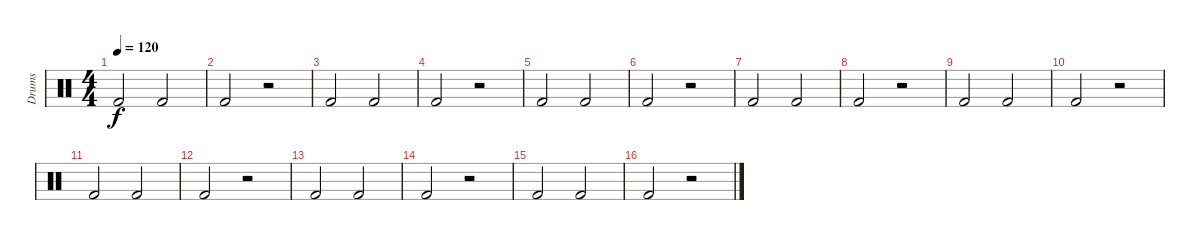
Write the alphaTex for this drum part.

\track ("Drums" "Drums") {instrument percussion}
\staff {score}
\articulation defaults
\ts (4 4)
\tempo 120
\clef neutral
\ks c "Kick (hit) 2".2{dy f} "Kick (hit) 2".2
|
"Kick (hit) 2".2 r.2 |
"Kick (hit) 2".2 "Kick (hit) 2".2 |
"Kick (hit) 2".2 r.2 |
"Kick (hit) 2".2 "Kick (hit) 2".2 |
"Kick (hit) 2".2 r.2 |
"Kick (hit) 2".2 "Kick (hit) 2".2 |
"Kick (hit) 2".2 r.2 |
"Kick (hit) 2".2 "Kick (hit) 2".2 |
"Kick (hit) 2".2 r.2 |
"Kick (hit) 2".2 "Kick (hit) 2".2 |
"Kick (hit) 2".2 r.2 |
"Kick (hit) 2".2 "Kick (hit) 2".2 |
"Kick (hit) 2".2 r.2 |
"Kick (hit) 2".2 "Kick (hit) 2".2 |
"Kick (hit) 2".2 r.2
